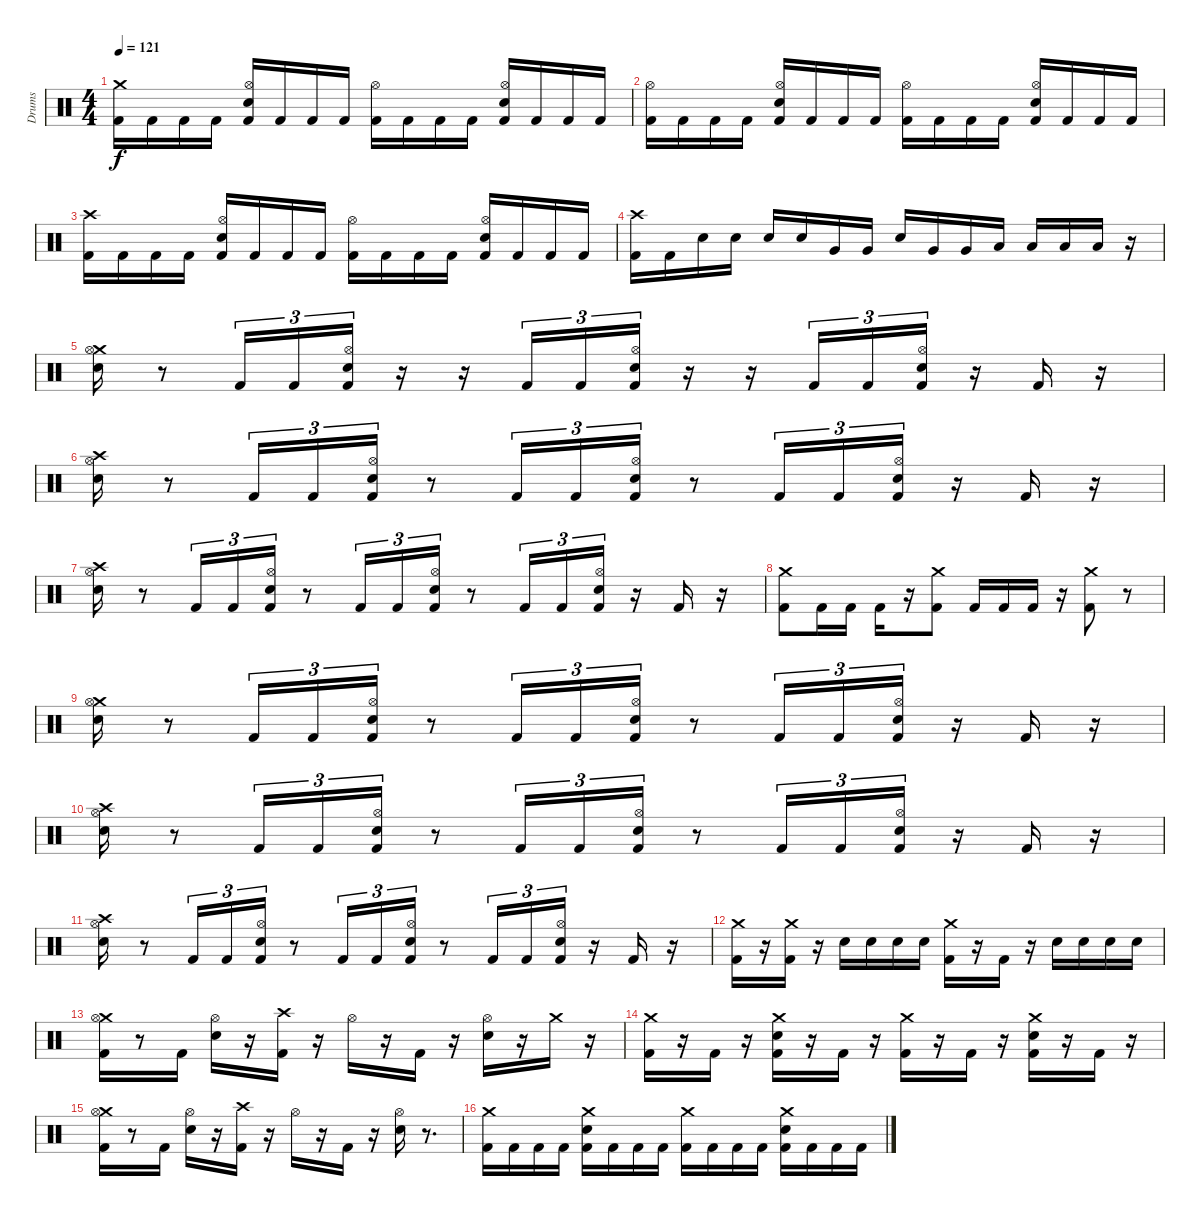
\track ("Drums" "Drums") {instrument percussion}
\staff {score}
\articulation defaults
\ts (4 4)
\tempo 121
\clef neutral
\ks c
("Crash medium (hit)" "Kick (hit) 2").16{dy f} "Kick (hit) 2".16 "Kick (hit) 2".16 "Kick (hit) 2".16 ("Hi-Hat (open)" "Electric Snare (hit)" "Kick (hit) 2").16 "Kick (hit) 2".16 "Kick (hit) 2".16 "Kick (hit) 2".16 ("Hi-Hat (open)" "Kick (hit) 2").16 "Kick (hit) 2".16 "Kick (hit) 2".16 "Kick (hit) 2".16 ("Hi-Hat (open)" "Electric Snare (hit)" "Kick (hit) 2").16 "Kick (hit) 2".16 "Kick (hit) 2".16 "Kick (hit) 2".16 |
("Hi-Hat (open)" "Kick (hit) 2").16 "Kick (hit) 2".16 "Kick (hit) 2".16 "Kick (hit) 2".16 ("Hi-Hat (open)" "Electric Snare (hit)" "Kick (hit) 2").16 "Kick (hit) 2".16 "Kick (hit) 2".16 "Kick (hit) 2".16 ("Hi-Hat (open)" "Kick (hit) 2").16 "Kick (hit) 2".16 "Kick (hit) 2".16 "Kick (hit) 2".16 ("Hi-Hat (open)" "Electric Snare (hit)" "Kick (hit) 2").16 "Kick (hit) 2".16 "Kick (hit) 2".16 "Kick (hit) 2".16 |
("Crash high (hit)" "Kick (hit) 2").16 "Kick (hit) 2".16 "Kick (hit) 2".16 "Kick (hit) 2".16 ("Hi-Hat (open)" "Electric Snare (hit)" "Kick (hit) 2").16 "Kick (hit) 2".16 "Kick (hit) 2".16 "Kick (hit) 2".16 ("Hi-Hat (open)" "Kick (hit) 2").16 "Kick (hit) 2".16 "Kick (hit) 2".16 "Kick (hit) 2".16 ("Hi-Hat (open)" "Electric Snare (hit)" "Kick (hit) 2").16 "Kick (hit) 2".16 "Kick (hit) 2".16 "Kick (hit) 2".16 |
("Crash high (hit)" "Kick (hit) 2").16 "Kick (hit) 2".16 "Electric Snare (hit)".16 "Electric Snare (hit)".16 "Electric Snare (hit)".16 "Electric Snare (hit)".16 "Very Low Tom (hit)".16 "Very Low Tom (hit)".16 "Electric Snare (hit)".16 "Very Low Tom (hit)".16 "Very Low Tom (hit)".16 "Low Tom (hit)".16 "Low Tom (hit)".16 "Low Tom (hit)".16 "Low Tom (hit)".16 r.16 |
("Crash medium (hit)" "Hi-Hat (open)" "Electric Snare (hit)").16 r.8 "Kick (hit) 2".16{tu (3 2)} "Kick (hit) 2".16{tu (3 2)} ("Hi-Hat (open)" "Electric Snare (hit)" "Kick (hit) 2").16{tu (3 2)} r.16 r.16 "Kick (hit) 2".16{tu (3 2)} "Kick (hit) 2".16{tu (3 2)} ("Hi-Hat (open)" "Electric Snare (hit)" "Kick (hit) 2").16{tu (3 2)} r.16 r.16 "Kick (hit) 2".16{tu (3 2)} "Kick (hit) 2".16{tu (3 2)} ("Hi-Hat (open)" "Electric Snare (hit)" "Kick (hit) 2").16{tu (3 2)} r.16 "Kick (hit) 2".16 r.16 |
("Crash high (hit)" "Hi-Hat (open)" "Electric Snare (hit)").16 r.8 "Kick (hit) 2".16{tu (3 2)} "Kick (hit) 2".16{tu (3 2)} ("Hi-Hat (open)" "Electric Snare (hit)" "Kick (hit) 2").16{tu (3 2)} r.8 "Kick (hit) 2".16{tu (3 2)} "Kick (hit) 2".16{tu (3 2)} ("Hi-Hat (open)" "Electric Snare (hit)" "Kick (hit) 2").16{tu (3 2)} r.8 "Kick (hit) 2".16{tu (3 2)} "Kick (hit) 2".16{tu (3 2)} ("Hi-Hat (open)" "Electric Snare (hit)" "Kick (hit) 2").16{tu (3 2)} r.16 "Kick (hit) 2".16 r.16 |
("Crash high (hit)" "Hi-Hat (open)" "Electric Snare (hit)").16 r.8 "Kick (hit) 2".16{tu (3 2)} "Kick (hit) 2".16{tu (3 2)} ("Hi-Hat (open)" "Electric Snare (hit)" "Kick (hit) 2").16{tu (3 2)} r.8 "Kick (hit) 2".16{tu (3 2)} "Kick (hit) 2".16{tu (3 2)} ("Hi-Hat (open)" "Electric Snare (hit)" "Kick (hit) 2").16{tu (3 2)} r.8 "Kick (hit) 2".16{tu (3 2)} "Kick (hit) 2".16{tu (3 2)} ("Hi-Hat (open)" "Electric Snare (hit)" "Kick (hit) 2").16{tu (3 2)} r.16 "Kick (hit) 2".16 r.16 |
("Crash medium (hit)" "Kick (hit) 2").8 "Kick (hit) 2".16 "Kick (hit) 2".16 "Kick (hit) 2".16 r.16 ("Crash medium (hit)" "Kick (hit) 2").8 "Kick (hit) 2".16 "Kick (hit) 2".16 "Kick (hit) 2".16 r.16 ("Crash medium (hit)" "Kick (hit) 2").8 r.8 |
("Crash medium (hit)" "Hi-Hat (open)" "Electric Snare (hit)").16 r.8 "Kick (hit) 2".16{tu (3 2)} "Kick (hit) 2".16{tu (3 2)} ("Hi-Hat (open)" "Electric Snare (hit)" "Kick (hit) 2").16{tu (3 2)} r.8 "Kick (hit) 2".16{tu (3 2)} "Kick (hit) 2".16{tu (3 2)} ("Hi-Hat (open)" "Electric Snare (hit)" "Kick (hit) 2").16{tu (3 2)} r.8 "Kick (hit) 2".16{tu (3 2)} "Kick (hit) 2".16{tu (3 2)} ("Hi-Hat (open)" "Electric Snare (hit)" "Kick (hit) 2").16{tu (3 2)} r.16 "Kick (hit) 2".16 r.16 |
("Crash high (hit)" "Hi-Hat (open)" "Electric Snare (hit)").16 r.8 "Kick (hit) 2".16{tu (3 2)} "Kick (hit) 2".16{tu (3 2)} ("Hi-Hat (open)" "Electric Snare (hit)" "Kick (hit) 2").16{tu (3 2)} r.8 "Kick (hit) 2".16{tu (3 2)} "Kick (hit) 2".16{tu (3 2)} ("Hi-Hat (open)" "Electric Snare (hit)" "Kick (hit) 2").16{tu (3 2)} r.8 "Kick (hit) 2".16{tu (3 2)} "Kick (hit) 2".16{tu (3 2)} ("Hi-Hat (open)" "Electric Snare (hit)" "Kick (hit) 2").16{tu (3 2)} r.16 "Kick (hit) 2".16 r.16 |
("Crash high (hit)" "Hi-Hat (open)" "Electric Snare (hit)").16 r.8 "Kick (hit) 2".16{tu (3 2)} "Kick (hit) 2".16{tu (3 2)} ("Hi-Hat (open)" "Electric Snare (hit)" "Kick (hit) 2").16{tu (3 2)} r.8 "Kick (hit) 2".16{tu (3 2)} "Kick (hit) 2".16{tu (3 2)} ("Hi-Hat (open)" "Electric Snare (hit)" "Kick (hit) 2").16{tu (3 2)} r.8 "Kick (hit) 2".16{tu (3 2)} "Kick (hit) 2".16{tu (3 2)} ("Hi-Hat (open)" "Electric Snare (hit)" "Kick (hit) 2").16{tu (3 2)} r.16 "Kick (hit) 2".16 r.16 |
("Crash medium (hit)" "Kick (hit) 2").16 r.16 ("Crash medium (hit)" "Kick (hit) 2").16 r.16 "Electric Snare (hit)".16 "Electric Snare (hit)".16 "Electric Snare (hit)".16 "Electric Snare (hit)".16 ("Crash medium (hit)" "Kick (hit) 2").16 r.16 "Kick (hit) 2".16 r.16 "Electric Snare (hit)".16 "Electric Snare (hit)".16 "Electric Snare (hit)".16 "Electric Snare (hit)".16 |
("Crash medium (hit)" "Hi-Hat (open)" "Kick (hit) 2").16 r.8 "Kick (hit) 2".16 ("Hi-Hat (open)" "Electric Snare (hit)").16 r.16 ("Crash high (hit)" "Kick (hit) 2").16 r.16 "Hi-Hat (open)".16 r.16 "Kick (hit) 2".16 r.16 ("Hi-Hat (open)" "Electric Snare (hit)").16 r.16 "Crash medium (hit)".16 r.16 |
("Crash medium (hit)" "Kick (hit) 2").16 r.16 "Kick (hit) 2".16 r.16 ("Crash medium (hit)" "Electric Snare (hit)" "Kick (hit) 2").16 r.16 "Kick (hit) 2".16 r.16 ("Crash medium (hit)" "Kick (hit) 2").16 r.16 "Kick (hit) 2".16 r.16 ("Crash medium (hit)" "Electric Snare (hit)" "Kick (hit) 2").16 r.16 "Kick (hit) 2".16 r.16 |
("Crash medium (hit)" "Hi-Hat (open)" "Kick (hit) 2").16 r.8 "Kick (hit) 2".16 ("Hi-Hat (open)" "Electric Snare (hit)").16 r.16 ("Crash high (hit)" "Kick (hit) 2").16 r.16 "Hi-Hat (open)".16 r.16 "Kick (hit) 2".16 r.16 ("Hi-Hat (open)" "Electric Snare (hit)").16 r.8{d} |
("Crash medium (hit)" "Kick (hit) 2").16 "Kick (hit) 2".16 "Kick (hit) 2".16 "Kick (hit) 2".16 ("Crash medium (hit)" "Electric Snare (hit)" "Kick (hit) 2").16 "Kick (hit) 2".16 "Kick (hit) 2".16 "Kick (hit) 2".16 ("Crash medium (hit)" "Kick (hit) 2").16 "Kick (hit) 2".16 "Kick (hit) 2".16 "Kick (hit) 2".16 ("Crash medium (hit)" "Electric Snare (hit)" "Kick (hit) 2").16 "Kick (hit) 2".16 "Kick (hit) 2".16 "Kick (hit) 2".16
